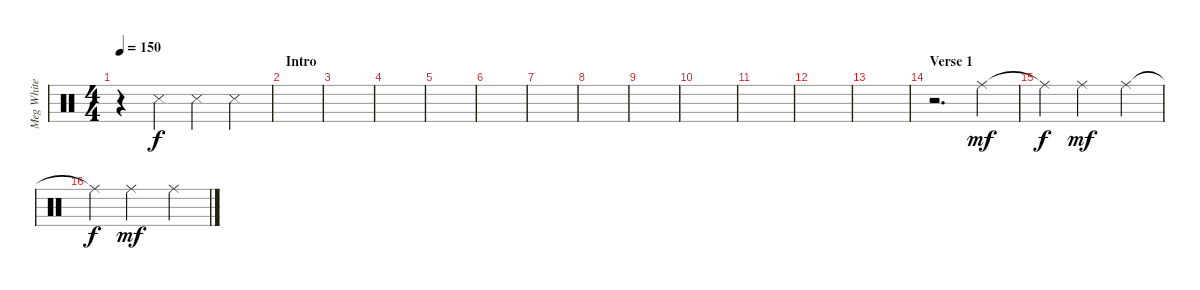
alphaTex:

\track ("Meg White" "Meg White") {instrument percussion}
\staff {score}
\articulation defaults
\ts (4 4)
\tempo 150
\clef neutral
\ks c
r.4{dy f} "Metronome (hit)".4 "Metronome (hit)".4 "Metronome (hit)".4 |
\section ("" "Intro")
|
|
|
|
|
|
|
|
|
|
|
|
\section ("" "Verse 1")
r.2{d} "Ride (middle)".4{dy mf} |
"Ride (middle)"{t}.4{dy f} "Ride (middle)".2{dy mf} "Ride (middle)".4 |
"Ride (middle)"{t}.4{dy f} "Ride (middle)".2{dy mf} "Ride (middle)".4
